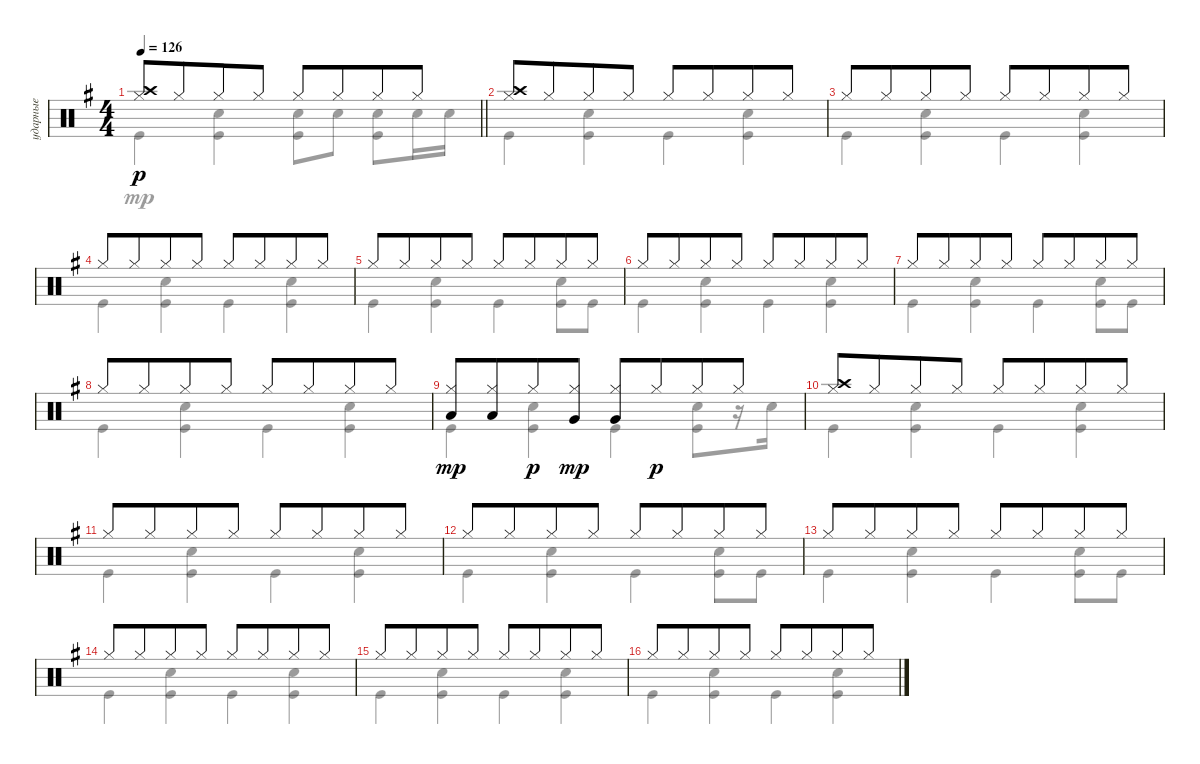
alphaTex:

\track ("ударные" "ударные") {instrument percussion}
\staff {score}
\articulation defaults
\voice
\ts (4 4)
\tempo 126
\clef neutral
\barLineRight lightlight
\ks eminor
("Hi-Hat (closed)" "Crash high (hit)").8{dy p} "Hi-Hat (closed)".8{beam merge} "Hi-Hat (closed)".8 "Hi-Hat (closed)".8 "Hi-Hat (closed)".8 "Hi-Hat (closed)".8{beam merge} "Hi-Hat (closed)".8 "Hi-Hat (closed)".8 |
\section ("" "")
("Hi-Hat (closed)" "Crash high (hit)").8 "Hi-Hat (closed)".8{beam merge} "Hi-Hat (closed)".8 "Hi-Hat (closed)".8 "Hi-Hat (closed)".8 "Hi-Hat (closed)".8{beam merge} "Hi-Hat (closed)".8 "Hi-Hat (closed)".8 |
"Hi-Hat (closed)".8 "Hi-Hat (closed)".8{beam merge} "Hi-Hat (closed)".8 "Hi-Hat (closed)".8 "Hi-Hat (closed)".8 "Hi-Hat (closed)".8{beam merge} "Hi-Hat (closed)".8 "Hi-Hat (closed)".8 |
"Hi-Hat (closed)".8 "Hi-Hat (closed)".8{beam merge} "Hi-Hat (closed)".8 "Hi-Hat (closed)".8 "Hi-Hat (closed)".8 "Hi-Hat (closed)".8{beam merge} "Hi-Hat (closed)".8 "Hi-Hat (closed)".8 |
"Hi-Hat (closed)".8 "Hi-Hat (closed)".8{beam merge} "Hi-Hat (closed)".8 "Hi-Hat (closed)".8 "Hi-Hat (closed)".8 "Hi-Hat (closed)".8{beam merge} "Hi-Hat (closed)".8 "Hi-Hat (closed)".8 |
"Hi-Hat (closed)".8 "Hi-Hat (closed)".8{beam merge} "Hi-Hat (closed)".8 "Hi-Hat (closed)".8 "Hi-Hat (closed)".8 "Hi-Hat (closed)".8{beam merge} "Hi-Hat (closed)".8 "Hi-Hat (closed)".8 |
"Hi-Hat (closed)".8 "Hi-Hat (closed)".8{beam merge} "Hi-Hat (closed)".8 "Hi-Hat (closed)".8 "Hi-Hat (closed)".8 "Hi-Hat (closed)".8{beam merge} "Hi-Hat (closed)".8 "Hi-Hat (closed)".8 |
"Hi-Hat (closed)".8 "Hi-Hat (closed)".8{beam merge} "Hi-Hat (closed)".8 "Hi-Hat (closed)".8 "Hi-Hat (closed)".8 "Hi-Hat (closed)".8{beam merge} "Hi-Hat (closed)".8 "Hi-Hat (closed)".8 |
("Hi-Hat (closed)" "Low Tom (hit)").8{dy mp} ("Hi-Hat (closed)" "Low Tom (hit)").8{beam merge} "Hi-Hat (closed)".8{dy p} ("Hi-Hat (closed)" "Very Low Tom (hit)").8{dy mp} ("Hi-Hat (closed)" "Very Low Tom (hit)").8 "Hi-Hat (closed)".8{dy p beam merge} "Hi-Hat (closed)".8 "Hi-Hat (closed)".8 |
("Hi-Hat (closed)" "Crash high (hit)").8 "Hi-Hat (closed)".8{beam merge} "Hi-Hat (closed)".8 "Hi-Hat (closed)".8 "Hi-Hat (closed)".8 "Hi-Hat (closed)".8{beam merge} "Hi-Hat (closed)".8 "Hi-Hat (closed)".8 |
"Hi-Hat (closed)".8 "Hi-Hat (closed)".8{beam merge} "Hi-Hat (closed)".8 "Hi-Hat (closed)".8 "Hi-Hat (closed)".8 "Hi-Hat (closed)".8{beam merge} "Hi-Hat (closed)".8 "Hi-Hat (closed)".8 |
"Hi-Hat (closed)".8 "Hi-Hat (closed)".8{beam merge} "Hi-Hat (closed)".8 "Hi-Hat (closed)".8 "Hi-Hat (closed)".8 "Hi-Hat (closed)".8{beam merge} "Hi-Hat (closed)".8 "Hi-Hat (closed)".8 |
"Hi-Hat (closed)".8 "Hi-Hat (closed)".8{beam merge} "Hi-Hat (closed)".8 "Hi-Hat (closed)".8 "Hi-Hat (closed)".8 "Hi-Hat (closed)".8{beam merge} "Hi-Hat (closed)".8 "Hi-Hat (closed)".8 |
"Hi-Hat (closed)".8 "Hi-Hat (closed)".8{beam merge} "Hi-Hat (closed)".8 "Hi-Hat (closed)".8 "Hi-Hat (closed)".8 "Hi-Hat (closed)".8{beam merge} "Hi-Hat (closed)".8 "Hi-Hat (closed)".8 |
"Hi-Hat (closed)".8 "Hi-Hat (closed)".8{beam merge} "Hi-Hat (closed)".8 "Hi-Hat (closed)".8 "Hi-Hat (closed)".8 "Hi-Hat (closed)".8{beam merge} "Hi-Hat (closed)".8 "Hi-Hat (closed)".8 |
"Hi-Hat (closed)".8 "Hi-Hat (closed)".8{beam merge} "Hi-Hat (closed)".8 "Hi-Hat (closed)".8 "Hi-Hat (closed)".8 "Hi-Hat (closed)".8{beam merge} "Hi-Hat (closed)".8 "Hi-Hat (closed)".8
\voice
\clef neutral
\ottava regular
\simile none
\barLineRight lightlight
\ks eminor "Kick (hit)".4{dy mp}
("Snare (hit) 2" "Kick (hit)").4 ("Snare (hit) 2" "Kick (hit)").8 "Snare (hit) 2".8 ("Snare (hit) 2" "Kick (hit)").8 "Snare (hit) 2".16 "Snare (hit) 2".16 |
"Kick (hit)".4 ("Snare (hit) 2" "Kick (hit)").4 "Kick (hit)".4 ("Snare (hit) 2" "Kick (hit)").4 |
"Kick (hit)".4 ("Snare (hit) 2" "Kick (hit)").4 "Kick (hit)".4 ("Snare (hit) 2" "Kick (hit)").4 |
"Kick (hit)".4 ("Snare (hit) 2" "Kick (hit)").4 "Kick (hit)".4 ("Snare (hit) 2" "Kick (hit)").4 |
"Kick (hit)".4 ("Snare (hit) 2" "Kick (hit)").4 "Kick (hit)".4 ("Snare (hit) 2" "Kick (hit)").8 "Kick (hit)".8 |
"Kick (hit)".4 ("Snare (hit) 2" "Kick (hit)").4 "Kick (hit)".4 ("Snare (hit) 2" "Kick (hit)").4 |
"Kick (hit)".4 ("Snare (hit) 2" "Kick (hit)").4 "Kick (hit)".4 ("Snare (hit) 2" "Kick (hit)").8 "Kick (hit)".8 |
"Kick (hit)".4 ("Snare (hit) 2" "Kick (hit)").4 "Kick (hit)".4 ("Snare (hit) 2" "Kick (hit)").4 |
"Kick (hit)".4 ("Snare (hit) 2" "Kick (hit)").4 "Kick (hit)".4 ("Snare (hit) 2" "Kick (hit)").8 r.16 "Snare (hit) 2".16 |
"Kick (hit)".4 ("Snare (hit) 2" "Kick (hit)").4 "Kick (hit)".4 ("Snare (hit) 2" "Kick (hit)").4 |
"Kick (hit)".4 ("Snare (hit) 2" "Kick (hit)").4 "Kick (hit)".4 ("Snare (hit) 2" "Kick (hit)").4 |
"Kick (hit)".4 ("Snare (hit) 2" "Kick (hit)").4 "Kick (hit)".4 ("Snare (hit) 2" "Kick (hit)").8 "Kick (hit)".8 |
"Kick (hit)".4 ("Snare (hit) 2" "Kick (hit)").4 "Kick (hit)".4 ("Snare (hit) 2" "Kick (hit)").8 "Kick (hit)".8 |
"Kick (hit)".4 ("Snare (hit) 2" "Kick (hit)").4 "Kick (hit)".4 ("Snare (hit) 2" "Kick (hit)").4 |
"Kick (hit)".4 ("Snare (hit) 2" "Kick (hit)").4 "Kick (hit)".4 ("Snare (hit) 2" "Kick (hit)").4 |
"Kick (hit)".4 ("Snare (hit) 2" "Kick (hit)").4 "Kick (hit)".4 ("Snare (hit) 2" "Kick (hit)").4
